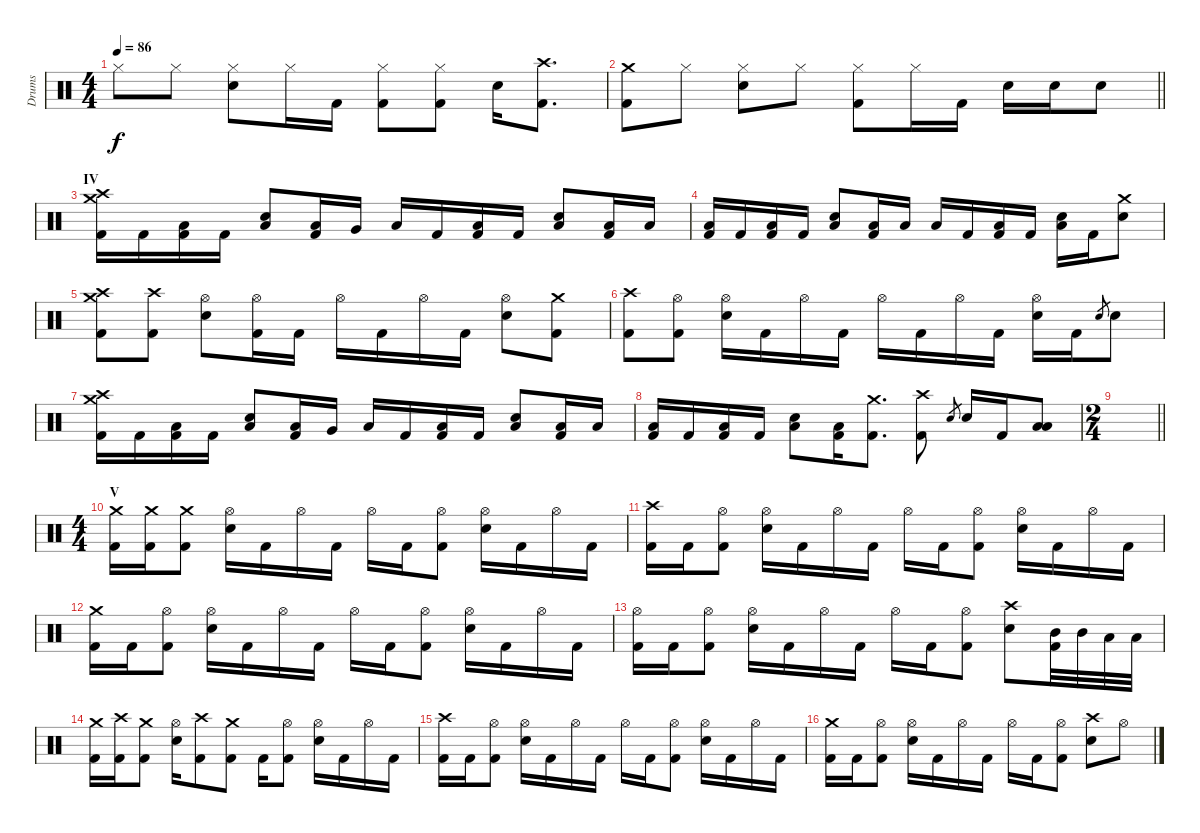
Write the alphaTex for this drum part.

\track ("Drums" "Drums") {instrument percussion}
\staff {score}
\articulation defaults
\ts (4 4)
\tempo 86
\clef neutral
\ks c "Hi-Hat (closed)".8{dy f} "Hi-Hat (closed)".8
("Hi-Hat (closed)" "Electric Snare (hit)").8 "Hi-Hat (closed)".16 "Kick (hit) 2".16 ("Hi-Hat (closed)" "Kick (hit) 2").8 ("Hi-Hat (closed)" "Kick (hit) 2").8 "Electric Snare (hit)".16 ("Kick (hit) 2" "Crash high (hit)").8{d} |
\barLineRight lightlight
("Kick (hit) 2" "Crash medium (hit)").8 "Hi-Hat (closed)".8 ("Hi-Hat (closed)" "Electric Snare (hit)").8 "Hi-Hat (closed)".8 ("Hi-Hat (closed)" "Kick (hit) 2").8 "Hi-Hat (closed)".16 "Kick (hit) 2".16 "Electric Snare (hit)".16 "Electric Snare (hit)".16 "Electric Snare (hit)".8 |
\section ("" "IV")
("Kick (hit) 2" "Crash medium (hit)" "Crash high (hit)").16 "Kick (hit) 2".16 ("Kick (hit) 2" "Low Floor Tom (hit)").16 "Kick (hit) 2".16 ("Electric Snare (hit)" "Low Floor Tom (hit)").8 ("Kick (hit) 2" "Low Floor Tom (hit)").16 "Very Low Tom (hit)".16 "Low Floor Tom (hit)".16 "Kick (hit) 2".16 ("Kick (hit) 2" "Low Floor Tom (hit)").16 "Kick (hit) 2".16 ("Electric Snare (hit)" "Low Floor Tom (hit)").8 ("Kick (hit) 2" "Low Floor Tom (hit)").16 "Low Tom (hit)".16 |
("Kick (hit) 2" "Low Floor Tom (hit)").16 "Kick (hit) 2".16 ("Kick (hit) 2" "Low Floor Tom (hit)").16 "Kick (hit) 2".16 ("Electric Snare (hit)" "Low Floor Tom (hit)").8 ("Kick (hit) 2" "Low Floor Tom (hit)").16 "Low Tom (hit)".16 "Low Floor Tom (hit)".16 "Kick (hit) 2".16 ("Kick (hit) 2" "Low Floor Tom (hit)").16 "Kick (hit) 2".16 ("Electric Snare (hit)" "Low Floor Tom (hit)").16 "Kick (hit) 2".16 ("Crash medium (hit)" "Electric Snare (hit)").8 |
("Kick (hit) 2" "Crash medium (hit)" "Crash high (hit)").8 ("Kick (hit) 2" "Crash high (hit)").8 ("Hi-Hat (open)" "Electric Snare (hit)").8 ("Hi-Hat (open)" "Kick (hit) 2").16 "Kick (hit) 2".16 "Hi-Hat (open)".16 "Kick (hit) 2".16 "Hi-Hat (open)".16 "Kick (hit) 2".16 ("Hi-Hat (open)" "Electric Snare (hit)").8 ("Kick (hit) 2" "Crash medium (hit)").8 |
("Kick (hit) 2" "Crash high (hit)").8 ("Hi-Hat (open)" "Kick (hit) 2").8 ("Hi-Hat (open)" "Electric Snare (hit)").16 "Kick (hit) 2".16 "Hi-Hat (open)".16 "Kick (hit) 2".16 "Hi-Hat (open)".16 "Kick (hit) 2".16 "Hi-Hat (open)".16 "Kick (hit) 2".16 ("Hi-Hat (open)" "Electric Snare (hit)").16 "Kick (hit) 2".16 "Electric Snare (hit)".8{gr} "Electric Snare (hit)".8 |
("Kick (hit) 2" "Crash medium (hit)" "Crash high (hit)").16 "Kick (hit) 2".16 ("Kick (hit) 2" "Low Floor Tom (hit)").16 "Kick (hit) 2".16 ("Electric Snare (hit)" "Low Floor Tom (hit)").8 ("Kick (hit) 2" "Low Floor Tom (hit)").16 "Very Low Tom (hit)".16 "Low Floor Tom (hit)".16 "Kick (hit) 2".16 ("Kick (hit) 2" "Low Floor Tom (hit)").16 "Kick (hit) 2".16 ("Electric Snare (hit)" "Low Floor Tom (hit)").8 ("Kick (hit) 2" "Low Floor Tom (hit)").16 "Low Tom (hit)".16 |
("Kick (hit) 2" "Low Floor Tom (hit)").16 "Kick (hit) 2".16 ("Kick (hit) 2" "Low Floor Tom (hit)").16 "Kick (hit) 2".16 ("Electric Snare (hit)" "Low Floor Tom (hit)").8 ("Kick (hit) 2" "Low Floor Tom (hit)").16 ("Kick (hit) 2" "Crash medium (hit)").8{d} ("Kick (hit) 2" "Crash high (hit)").8 "Electric Snare (hit)".8{gr} "Electric Snare (hit)".16 "Kick (hit) 2".16 ("Low Floor Tom (hit)" "Low Tom (hit)").8 |
\ts (2 4)
\barLineRight lightlight
|
\ts (4 4)
\section ("" "V")
("Kick (hit) 2" "Crash medium (hit)").16 ("Kick (hit) 2" "Crash medium (hit)").16 ("Kick (hit) 2" "Crash medium (hit)").8 ("Hi-Hat (open)" "Electric Snare (hit)").16 "Kick (hit) 2".16 "Hi-Hat (open)".16 "Kick (hit) 2".16 "Hi-Hat (open)".16 "Kick (hit) 2".16 ("Hi-Hat (open)" "Kick (hit) 2").8 ("Hi-Hat (open)" "Electric Snare (hit)").16 "Kick (hit) 2".16 "Hi-Hat (open)".16 "Kick (hit) 2".16 |
("Kick (hit) 2" "Crash high (hit)").16 "Kick (hit) 2".16 ("Hi-Hat (open)" "Kick (hit) 2").8 ("Hi-Hat (open)" "Electric Snare (hit)").16 "Kick (hit) 2".16 "Hi-Hat (open)".16 "Kick (hit) 2".16 "Hi-Hat (open)".16 "Kick (hit) 2".16 ("Hi-Hat (open)" "Kick (hit) 2").8 ("Hi-Hat (open)" "Electric Snare (hit)").16 "Kick (hit) 2".16 "Hi-Hat (open)".16 "Kick (hit) 2".16 |
("Kick (hit) 2" "Crash medium (hit)").16 "Kick (hit) 2".16 ("Hi-Hat (open)" "Kick (hit) 2").8 ("Hi-Hat (open)" "Electric Snare (hit)").16 "Kick (hit) 2".16 "Hi-Hat (open)".16 "Kick (hit) 2".16 "Hi-Hat (open)".16 "Kick (hit) 2".16 ("Hi-Hat (open)" "Kick (hit) 2").8 ("Hi-Hat (open)" "Electric Snare (hit)").16 "Kick (hit) 2".16 "Hi-Hat (open)".16 "Kick (hit) 2".16 |
("Hi-Hat (open)" "Kick (hit) 2").16 "Kick (hit) 2".16 ("Hi-Hat (open)" "Kick (hit) 2").8 ("Hi-Hat (open)" "Electric Snare (hit)").16 "Kick (hit) 2".16 "Hi-Hat (open)".16 "Kick (hit) 2".16 "Hi-Hat (open)".16 "Kick (hit) 2".16 ("Hi-Hat (open)" "Kick (hit) 2").8 ("Crash high (hit)" "Electric Snare (hit)").8 ("Mid Tom (hit)" "Kick (hit) 2").32 "Mid Tom (hit)".32 "Low Tom (hit)".32 "Low Tom (hit)".32 |
("Kick (hit) 2" "Crash medium (hit)").16 ("Kick (hit) 2" "Crash high (hit)").16 ("Kick (hit) 2" "Crash medium (hit)").8 ("Hi-Hat (open)" "Electric Snare (hit)").16 ("Kick (hit) 2" "Crash high (hit)").8 ("Kick (hit) 2" "Crash medium (hit)").8 "Kick (hit) 2".16 ("Hi-Hat (open)" "Kick (hit) 2").8 ("Hi-Hat (open)" "Electric Snare (hit)").16 "Kick (hit) 2".16 "Hi-Hat (open)".16 "Kick (hit) 2".16 |
("Kick (hit) 2" "Crash high (hit)").16 "Kick (hit) 2".16 ("Hi-Hat (open)" "Kick (hit) 2").8 ("Hi-Hat (open)" "Electric Snare (hit)").16 "Kick (hit) 2".16 "Hi-Hat (open)".16 "Kick (hit) 2".16 "Hi-Hat (open)".16 "Kick (hit) 2".16 ("Hi-Hat (open)" "Kick (hit) 2").8 ("Hi-Hat (open)" "Electric Snare (hit)").16 "Kick (hit) 2".16 "Hi-Hat (open)".16 "Kick (hit) 2".16 |
("Kick (hit) 2" "Crash medium (hit)").16 "Kick (hit) 2".16 ("Hi-Hat (open)" "Kick (hit) 2").8 ("Hi-Hat (open)" "Electric Snare (hit)").16 "Kick (hit) 2".16 "Hi-Hat (open)".16 "Kick (hit) 2".16 "Hi-Hat (open)".16 "Kick (hit) 2".16 ("Hi-Hat (open)" "Kick (hit) 2").8 ("Crash high (hit)" "Electric Snare (hit)").8 "Hi-Hat (open)".8
